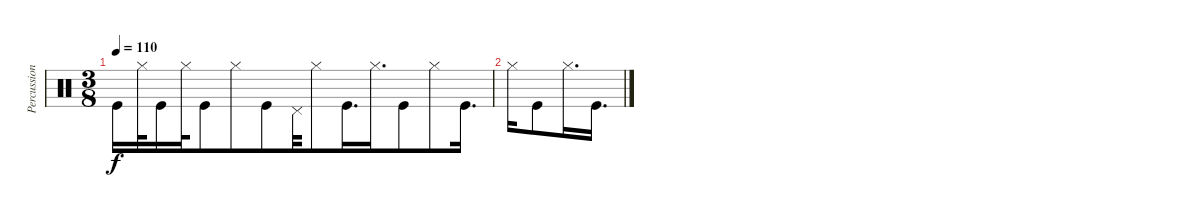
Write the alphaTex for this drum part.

\track ("Percussion" "Percussion") {instrument percussion}
\staff {score}
\articulation defaults
\ts (3 8)
\tempo 110
\clef neutral
\ks c "Kick (hit)".16{dy f} "Hi-Hat (closed)".32 "Kick (hit)".16 "Hi-Hat (closed)".32 "Kick (hit)".8 "Hi-Hat (closed)".8 "Kick (hit)".8 "Pedal Hi-Hat (hit)".32 "Hi-Hat (closed)".8 "Kick (hit)".16{d} "Hi-Hat (closed)".16{d} "Kick (hit)".8 "Hi-Hat (closed)".8 "Kick (hit)".16{d}
|
"Hi-Hat (closed)".16 "Kick (hit)".8 "Hi-Hat (closed)".16{d} "Kick (hit)".16{d}
